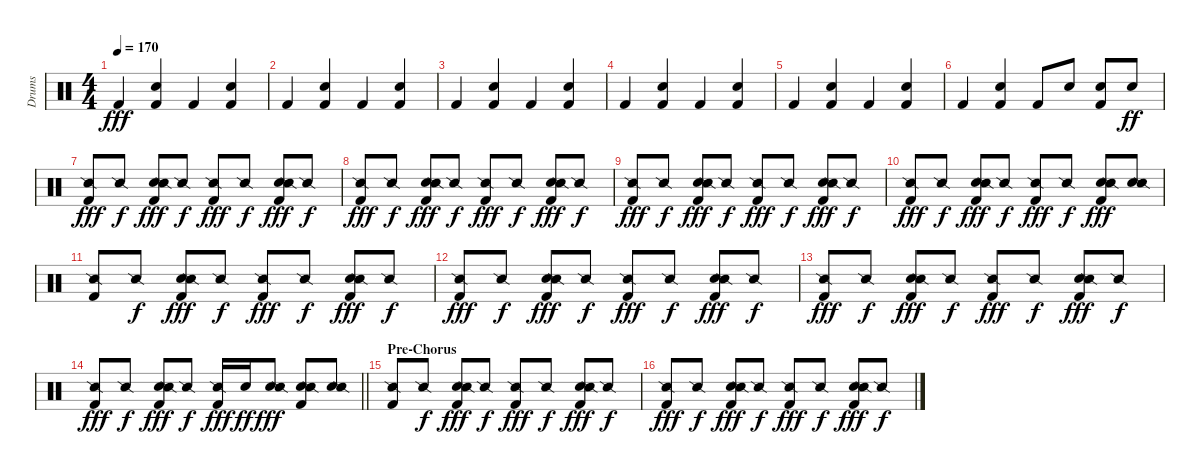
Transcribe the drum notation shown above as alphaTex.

\track ("Drums" "Drums") {instrument percussion}
\staff {score}
\articulation defaults
\ts (4 4)
\tempo 170
\clef neutral
\ks c "Kick (hit) 2".4{dy fff}
("Snare (hit) 2" "Kick (hit) 2").4 "Kick (hit) 2".4 ("Snare (hit) 2" "Kick (hit) 2").4 |
"Kick (hit) 2".4 ("Snare (hit) 2" "Kick (hit) 2").4 "Kick (hit) 2".4 ("Snare (hit) 2" "Kick (hit) 2").4 |
"Kick (hit) 2".4 ("Snare (hit) 2" "Kick (hit) 2").4 "Kick (hit) 2".4 ("Snare (hit) 2" "Kick (hit) 2").4 |
"Kick (hit) 2".4 ("Snare (hit) 2" "Kick (hit) 2").4 "Kick (hit) 2".4 ("Snare (hit) 2" "Kick (hit) 2").4 |
"Kick (hit) 2".4 ("Snare (hit) 2" "Kick (hit) 2").4 "Kick (hit) 2".4 ("Snare (hit) 2" "Kick (hit) 2").4 |
"Kick (hit) 2".4 ("Snare (hit) 2" "Kick (hit) 2").4 "Kick (hit) 2".8 "Snare (hit) 2".8 ("Snare (hit) 2" "Kick (hit) 2").8 "Snare (hit) 2".8{dy ff} |
("Kick (hit) 2" "Snare (side stick) 2").8{dy fff} "Snare (side stick) 2".8{dy f} ("Snare (hit) 2" "Kick (hit) 2" "Snare (side stick) 2").8{dy fff} "Snare (side stick) 2".8{dy f} ("Kick (hit) 2" "Snare (side stick) 2").8{dy fff} "Snare (side stick) 2".8{dy f} ("Snare (hit) 2" "Kick (hit) 2" "Snare (side stick) 2").8{dy fff} "Snare (side stick) 2".8{dy f} |
("Kick (hit) 2" "Snare (side stick) 2").8{dy fff} "Snare (side stick) 2".8{dy f} ("Snare (hit) 2" "Kick (hit) 2" "Snare (side stick) 2").8{dy fff} "Snare (side stick) 2".8{dy f} ("Kick (hit) 2" "Snare (side stick) 2").8{dy fff} "Snare (side stick) 2".8{dy f} ("Snare (hit) 2" "Kick (hit) 2" "Snare (side stick) 2").8{dy fff} "Snare (side stick) 2".8{dy f} |
("Kick (hit) 2" "Snare (side stick) 2").8{dy fff} "Snare (side stick) 2".8{dy f} ("Snare (hit) 2" "Kick (hit) 2" "Snare (side stick) 2").8{dy fff} "Snare (side stick) 2".8{dy f} ("Kick (hit) 2" "Snare (side stick) 2").8{dy fff} "Snare (side stick) 2".8{dy f} ("Snare (hit) 2" "Kick (hit) 2" "Snare (side stick) 2").8{dy fff} "Snare (side stick) 2".8{dy f} |
("Kick (hit) 2" "Snare (side stick) 2").8{dy fff} "Snare (side stick) 2".8{dy f} ("Snare (hit) 2" "Kick (hit) 2" "Snare (side stick) 2").8{dy fff} "Snare (side stick) 2".8{dy f} ("Kick (hit) 2" "Snare (side stick) 2").8{dy fff} "Snare (side stick) 2".8{dy f} ("Snare (hit) 2" "Kick (hit) 2" "Snare (side stick) 2").8{dy fff} ("Snare (hit) 2" "Snare (side stick) 2").8 |
("Kick (hit) 2" "Snare (side stick) 2").8 "Snare (side stick) 2".8{dy f} ("Snare (hit) 2" "Kick (hit) 2" "Snare (side stick) 2").8{dy fff} "Snare (side stick) 2".8{dy f} ("Kick (hit) 2" "Snare (side stick) 2").8{dy fff} "Snare (side stick) 2".8{dy f} ("Snare (hit) 2" "Kick (hit) 2" "Snare (side stick) 2").8{dy fff} "Snare (side stick) 2".8{dy f} |
("Kick (hit) 2" "Snare (side stick) 2").8{dy fff} "Snare (side stick) 2".8{dy f} ("Snare (hit) 2" "Kick (hit) 2" "Snare (side stick) 2").8{dy fff} "Snare (side stick) 2".8{dy f} ("Kick (hit) 2" "Snare (side stick) 2").8{dy fff} "Snare (side stick) 2".8{dy f} ("Snare (hit) 2" "Kick (hit) 2" "Snare (side stick) 2").8{dy fff} "Snare (side stick) 2".8{dy f} |
("Kick (hit) 2" "Snare (side stick) 2").8{dy fff} "Snare (side stick) 2".8{dy f} ("Snare (hit) 2" "Kick (hit) 2" "Snare (side stick) 2").8{dy fff} "Snare (side stick) 2".8{dy f} ("Kick (hit) 2" "Snare (side stick) 2").8{dy fff} "Snare (side stick) 2".8{dy f} ("Snare (hit) 2" "Kick (hit) 2" "Snare (side stick) 2").8{dy fff} "Snare (side stick) 2".8{dy f} |
\barLineRight lightlight
("Kick (hit) 2" "Snare (side stick) 2").8{dy fff} "Snare (side stick) 2".8{dy f} ("Snare (hit) 2" "Kick (hit) 2" "Snare (side stick) 2").8{dy fff} "Snare (side stick) 2".8{dy f} ("Kick (hit) 2" "Snare (side stick) 2").16{dy fff} "Snare (hit) 2".16{dy ff} ("Snare (hit) 2" "Snare (side stick) 2").8{dy fff} ("Snare (hit) 2" "Kick (hit) 2" "Snare (side stick) 2").8 ("Snare (hit) 2" "Snare (side stick) 2").8 |
\section ("" "Pre-Chorus")
("Kick (hit) 2" "Snare (side stick) 2").8 "Snare (side stick) 2".8{dy f} ("Snare (hit) 2" "Kick (hit) 2" "Snare (side stick) 2").8{dy fff} "Snare (side stick) 2".8{dy f} ("Kick (hit) 2" "Snare (side stick) 2").8{dy fff} "Snare (side stick) 2".8{dy f} ("Snare (hit) 2" "Kick (hit) 2" "Snare (side stick) 2").8{dy fff} "Snare (side stick) 2".8{dy f} |
("Kick (hit) 2" "Snare (side stick) 2").8{dy fff} "Snare (side stick) 2".8{dy f} ("Snare (hit) 2" "Kick (hit) 2" "Snare (side stick) 2").8{dy fff} "Snare (side stick) 2".8{dy f} ("Kick (hit) 2" "Snare (side stick) 2").8{dy fff} "Snare (side stick) 2".8{dy f} ("Snare (hit) 2" "Kick (hit) 2" "Snare (side stick) 2").8{dy fff} "Snare (side stick) 2".8{dy f}
